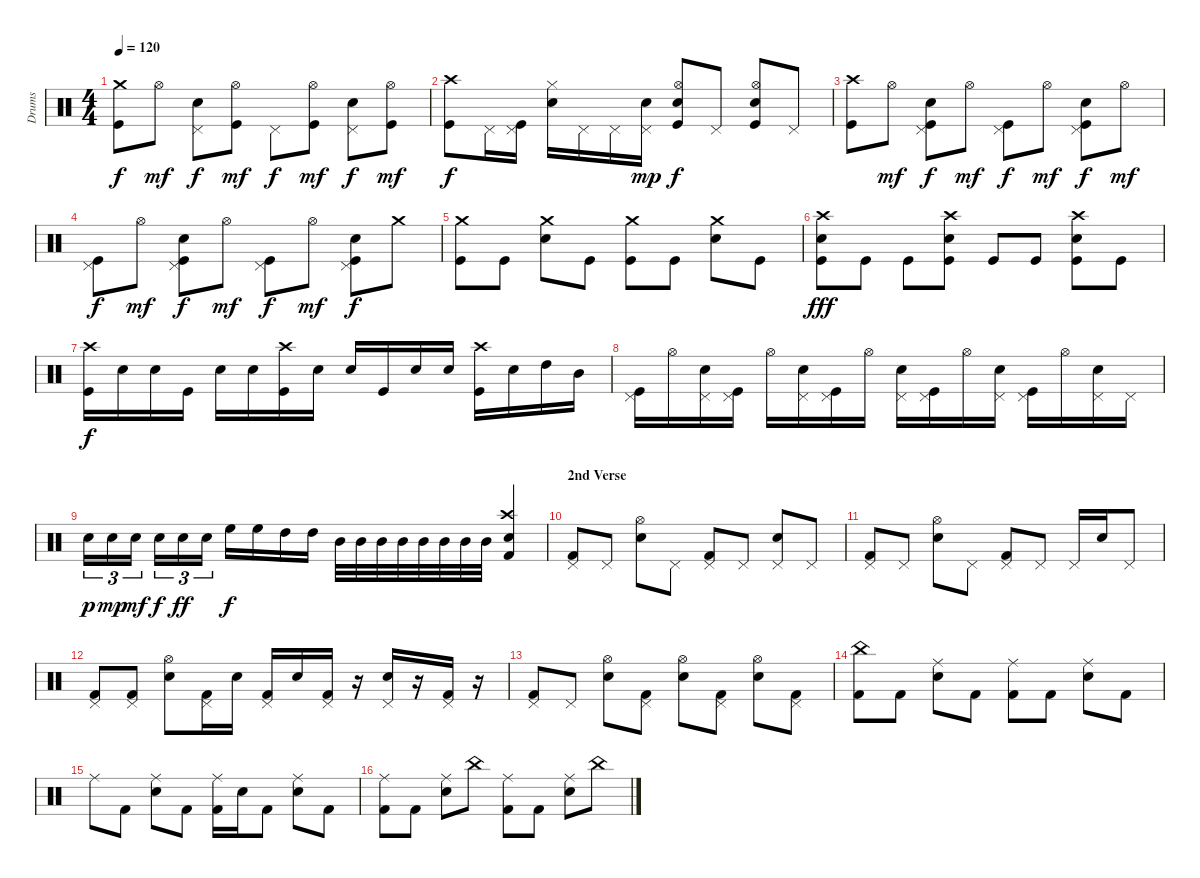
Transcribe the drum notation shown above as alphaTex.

\track ("Drums" "Drums") {instrument percussion}
\staff {score}
\articulation defaults
\ts (4 4)
\tempo 120
\clef neutral
\ks c
("Crash medium (hit)" "Kick (hit)").8{dy f} "Hi-Hat (open)".8{dy mf} ("Pedal Hi-Hat (hit)" "Electric Snare (hit)").8{dy f} ("Hi-Hat (open)" "Kick (hit)").8{dy mf} "Pedal Hi-Hat (hit)".8{dy f} ("Hi-Hat (open)" "Kick (hit)").8{dy mf} ("Pedal Hi-Hat (hit)" "Electric Snare (hit)").8{dy f} ("Hi-Hat (open)" "Kick (hit)").8{dy mf} |
("Crash high (hit)" "Kick (hit)").8{dy f} "Pedal Hi-Hat (hit)".16 ("Pedal Hi-Hat (hit)" "Kick (hit)").16 ("Hi-Hat (closed)" "Electric Snare (hit)").16 "Pedal Hi-Hat (hit)".16 "Pedal Hi-Hat (hit)".16 ("Pedal Hi-Hat (hit)" "Electric Snare (hit)").16{dy mp} ("Hi-Hat (open)" "Electric Snare (hit)" "Kick (hit)").8{dy f} "Pedal Hi-Hat (hit)".8 ("Hi-Hat (open)" "Electric Snare (hit)" "Kick (hit)").8 "Pedal Hi-Hat (hit)".8 |
("Crash high (hit)" "Kick (hit)").8 "Hi-Hat (open)".8{dy mf} ("Pedal Hi-Hat (hit)" "Electric Snare (hit)" "Kick (hit)").8{dy f} "Hi-Hat (open)".8{dy mf} ("Pedal Hi-Hat (hit)" "Kick (hit)").8{dy f} "Hi-Hat (open)".8{dy mf} ("Pedal Hi-Hat (hit)" "Electric Snare (hit)" "Kick (hit)").8{dy f} "Hi-Hat (open)".8{dy mf} |
("Pedal Hi-Hat (hit)" "Kick (hit)").8{dy f} "Hi-Hat (open)".8{dy mf} ("Pedal Hi-Hat (hit)" "Electric Snare (hit)" "Kick (hit)").8{dy f} "Hi-Hat (open)".8{dy mf} ("Pedal Hi-Hat (hit)" "Kick (hit)").8{dy f} "Hi-Hat (open)".8{dy mf} ("Pedal Hi-Hat (hit)" "Electric Snare (hit)" "Kick (hit)").8{dy f} "Crash medium (hit)".8 |
("Crash medium (hit)" "Kick (hit)").8 "Kick (hit)".8 ("Crash medium (hit)" "Electric Snare (hit)").8 "Kick (hit)".8 ("Crash medium (hit)" "Kick (hit)").8 "Kick (hit)".8 ("Crash medium (hit)" "Electric Snare (hit)").8 "Kick (hit)".8 |
("Crash high (hit)" "Electric Snare (hit)" "Kick (hit)").8{dy fff} "Kick (hit)".8 "Kick (hit)".8 ("Crash high (hit)" "Electric Snare (hit)" "Kick (hit)").8 "Kick (hit)".8 "Kick (hit)".8 ("Crash high (hit)" "Electric Snare (hit)" "Kick (hit)").8 "Kick (hit)".8 |
("Crash high (hit)" "Kick (hit)").16{dy f} "Electric Snare (hit)".16 "Electric Snare (hit)".16 "Kick (hit)".16 "Electric Snare (hit)".16 "Electric Snare (hit)".16 ("Crash high (hit)" "Kick (hit)").16 "Electric Snare (hit)".16 "Electric Snare (hit)".16 "Kick (hit)".16 "Electric Snare (hit)".16 "Electric Snare (hit)".16 ("Crash high (hit)" "Kick (hit)").16 "Electric Snare (hit)".16 "High Tom (hit)".16 "Mid Tom (hit)".16 |
("Pedal Hi-Hat (hit)" "Kick (hit)").16 "Hi-Hat (open)".16 ("Pedal Hi-Hat (hit)" "Electric Snare (hit)").16 ("Pedal Hi-Hat (hit)" "Kick (hit)").16 "Hi-Hat (open)".16 ("Pedal Hi-Hat (hit)" "Electric Snare (hit)").16 ("Pedal Hi-Hat (hit)" "Kick (hit)").16 "Hi-Hat (open)".16 ("Pedal Hi-Hat (hit)" "Electric Snare (hit)").16 ("Pedal Hi-Hat (hit)" "Kick (hit)").16 "Hi-Hat (open)".16 ("Pedal Hi-Hat (hit)" "Electric Snare (hit)").16 ("Pedal Hi-Hat (hit)" "Kick (hit)").16 "Hi-Hat (open)".16 ("Pedal Hi-Hat (hit)" "Electric Snare (hit)").16 "Pedal Hi-Hat (hit)".16 |
"Electric Snare (hit)".16{tu (3 2) dy p} "Electric Snare (hit)".16{tu (3 2) dy mp} "Electric Snare (hit)".16{tu (3 2) dy mf} "Electric Snare (hit)".16{tu (3 2) dy f} "Electric Snare (hit)".16{tu (3 2) dy ff} "Electric Snare (hit)".16{tu (3 2)} "High Floor Tom (hit)".16{dy f} "High Floor Tom (hit)".16 "High Tom (hit)".16 "High Tom (hit)".16 "Mid Tom (hit)".32 "Mid Tom (hit)".32 "Mid Tom (hit)".32 "Mid Tom (hit)".32 "Mid Tom (hit)".32 "Mid Tom (hit)".32 "Mid Tom (hit)".32 "Mid Tom (hit)".32 ("Crash high (hit)" "Electric Snare (hit)" "Kick (hit) 2").4 |
\section ("" "2nd Verse")
("Pedal Hi-Hat (hit)" "Kick (hit) 2").8 "Pedal Hi-Hat (hit)".8 ("Hi-Hat (open)" "Electric Snare (hit)").8 "Pedal Hi-Hat (hit)".8 ("Pedal Hi-Hat (hit)" "Kick (hit) 2").8 "Pedal Hi-Hat (hit)".8 ("Pedal Hi-Hat (hit)" "Electric Snare (hit)").8 "Pedal Hi-Hat (hit)".8 |
("Pedal Hi-Hat (hit)" "Kick (hit) 2").8 "Pedal Hi-Hat (hit)".8 ("Hi-Hat (open)" "Electric Snare (hit)").8 "Pedal Hi-Hat (hit)".8 ("Pedal Hi-Hat (hit)" "Kick (hit) 2").8 "Pedal Hi-Hat (hit)".8 "Pedal Hi-Hat (hit)".16 "Electric Snare (hit)".16 "Pedal Hi-Hat (hit)".8 |
("Pedal Hi-Hat (hit)" "Kick (hit) 2").8 ("Pedal Hi-Hat (hit)" "Kick (hit) 2").8 ("Hi-Hat (open)" "Electric Snare (hit)").8 ("Pedal Hi-Hat (hit)" "Kick (hit) 2").16 "Electric Snare (hit)".16 ("Pedal Hi-Hat (hit)" "Kick (hit) 2").16 "Electric Snare (hit)".16 ("Pedal Hi-Hat (hit)" "Kick (hit) 2").16 r.16 ("Pedal Hi-Hat (hit)" "Electric Snare (hit)").16 r.16 ("Pedal Hi-Hat (hit)" "Kick (hit) 2").16 r.16 |
("Pedal Hi-Hat (hit)" "Kick (hit) 2").8 "Pedal Hi-Hat (hit)".8 ("Hi-Hat (open)" "Electric Snare (hit)").8 ("Pedal Hi-Hat (hit)" "Kick (hit) 2").8 ("Hi-Hat (open)" "Electric Snare (hit)").8 ("Pedal Hi-Hat (hit)" "Kick (hit) 2").8 ("Hi-Hat (open)" "Electric Snare (hit)").8 ("Pedal Hi-Hat (hit)" "Kick (hit) 2").8 |
("China (hit)" "Kick (hit) 2").8 "Kick (hit) 2".8 ("Ride (middle)" "Electric Snare (hit)").8 "Kick (hit) 2".8 ("Ride (middle)" "Kick (hit) 2").8 "Kick (hit) 2".8 ("Ride (middle)" "Electric Snare (hit)").8 "Kick (hit) 2".8 |
"Ride (middle)".8 "Kick (hit) 2".8 ("Ride (middle)" "Electric Snare (hit)").8 "Kick (hit) 2".8 ("Ride (middle)" "Kick (hit) 2").16 "Electric Snare (hit)".16 "Kick (hit) 2".8 ("Ride (middle)" "Electric Snare (hit)").8 "Kick (hit) 2".8 |
("Ride (middle)" "Kick (hit) 2").8 "Kick (hit) 2".8 ("Ride (middle)" "Electric Snare (hit)").8 "China (hit)".8 ("Ride (middle)" "Kick (hit) 2").8 "Kick (hit) 2".8 ("Ride (middle)" "Electric Snare (hit)").8 "China (hit)".8
